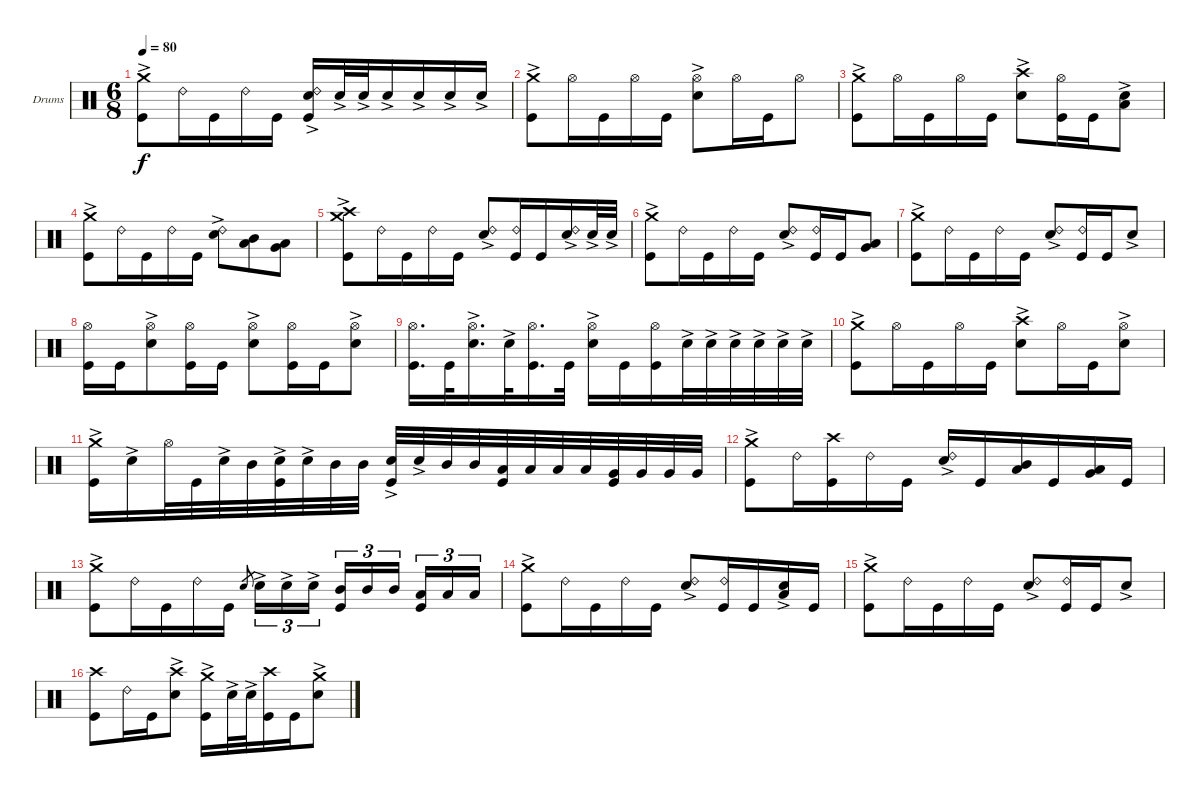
\defaultSystemsLayout 4
\bracketExtendMode groupsimilarinstruments
\firstSystemTrackNameOrientation horizontal
\otherSystemsTrackNameOrientation horizontal
\track ("Drumkit" "Drums") {instrument percussion}
\staff {score}
\articulation defaults
\ts (6 8)
\tempo 80
\clef neutral
\ks c
("Crash medium (hit)"{ac} "Kick (hit)").8{dy f} "Ride (bell) 2".16 "Kick (hit)".16 "Ride (bell) 2".16 "Kick (hit)".16 ("Ride (bell) 2" "Snare (hit) 2"{ac} "Kick (hit)").16 "Snare (hit) 2"{ac}.32 "Snare (hit) 2"{ac}.32 "Snare (hit) 2"{ac}.16 "Snare (hit) 2"{ac}.16 "Snare (hit) 2"{ac}.16 "Snare (hit) 2"{ac}.16 |
("Crash medium (hit)"{ac} "Kick (hit)").8 "Hi-Hat (open)".16 "Kick (hit)".16 "Hi-Hat (open)".16 "Kick (hit)".16 ("Hi-Hat (open)" "Snare (hit) 2"{ac}).8 "Hi-Hat (open)".16 "Kick (hit)".16 "Hi-Hat (open)".8 |
("Crash medium (hit)"{ac} "Kick (hit)").8 "Hi-Hat (open)".16 "Kick (hit)".16 "Hi-Hat (open)".16 "Kick (hit)".16 ("Crash high (hit)" "Snare (hit) 2"{ac}).8 ("Hi-Hat (open)" "Kick (hit)").16 "Kick (hit)".16 ("Snare (hit) 2"{ac} "Low Tom (hit)").8 |
("Crash medium (hit)"{ac} "Kick (hit)").8 "Ride (bell) 2".16 "Kick (hit)".16 "Ride (bell) 2".16 "Kick (hit)".16 ("Ride (bell) 2" "Snare (hit) 2"{ac}).8 ("Mid Tom (hit)" "Low Tom (hit)").8 ("Low Tom (hit)" "Very Low Tom (hit)").8 |
("Crash medium (hit)"{ac} "Crash high (hit)" "Kick (hit)").8 "Ride (bell) 2".16 "Kick (hit)".16 "Ride (bell) 2".16 "Kick (hit)".16 ("Ride (bell) 2" "Snare (hit) 2"{ac}).8 ("Ride (bell) 2" "Kick (hit)").16 "Kick (hit)".16 ("Ride (bell) 2" "Snare (hit) 2"{ac}).16 "Snare (hit) 2"{ac}.32 "Snare (hit) 2"{ac}.32 |
("Crash medium (hit)"{ac} "Kick (hit)").8 "Ride (bell) 2".16 "Kick (hit)".16 "Ride (bell) 2".16 "Kick (hit)".16 ("Ride (bell) 2" "Snare (hit) 2"{ac}).8 ("Ride (bell) 2" "Kick (hit)").16 "Kick (hit)".16 ("Low Tom (hit)" "Very Low Tom (hit)").8 |
("Crash medium (hit)"{ac} "Kick (hit)").8 "Ride (bell) 2".16 "Kick (hit)".16 "Ride (bell) 2".16 "Kick (hit)".16 ("Ride (bell) 2" "Snare (hit) 2"{ac}).8 ("Ride (bell) 2" "Kick (hit)").16 "Kick (hit)".16 "Snare (hit) 2"{ac}.8 |
("Hi-Hat (open)" "Kick (hit)").16 "Kick (hit)".16 ("Hi-Hat (open)" "Snare (hit) 2"{ac}).8 ("Hi-Hat (open)" "Kick (hit)").16 "Kick (hit)".16 ("Hi-Hat (open)" "Snare (hit) 2"{ac}).8 ("Hi-Hat (open)" "Kick (hit)").16 "Kick (hit)".16 ("Hi-Hat (open)" "Snare (hit) 2"{ac}).8 |
("Hi-Hat (open)" "Kick (hit)").16{d} "Kick (hit)".32 ("Hi-Hat (open)" "Snare (hit) 2"{ac}).16{d} "Snare (hit) 2"{ac}.32 ("Hi-Hat (open)" "Kick (hit)").16{d} "Kick (hit)".32 ("Hi-Hat (open)" "Snare (hit) 2"{ac}).16 "Kick (hit)".16 ("Hi-Hat (open)" "Kick (hit)").16 "Snare (hit) 2"{ac}.32 "Snare (hit) 2"{ac}.32 "Snare (hit) 2"{ac}.32 "Snare (hit) 2"{ac}.32 "Snare (hit) 2"{ac}.32 "Snare (hit) 2"{ac}.32 |
("Crash medium (hit)"{ac} "Kick (hit)").8 "Hi-Hat (open)".16 "Kick (hit)".16 "Hi-Hat (open)".16 "Kick (hit)".16 ("Crash high (hit)" "Snare (hit) 2"{ac}).8 "Hi-Hat (open)".16 "Kick (hit)".16 ("Hi-Hat (open)" "Snare (hit) 2"{ac}).8 |
("Crash medium (hit)"{ac} "Kick (hit)").16 "Snare (hit) 2"{ac}.16 "Hi-Hat (open)".32 "Kick (hit)".32 "Snare (hit) 2"{ac}.32 "Mid Tom (hit)".32 ("Snare (hit) 2"{ac} "Kick (hit)").32 "Snare (hit) 2"{ac}.32 "Mid Tom (hit)".32 "Mid Tom (hit)".32 ("Snare (hit) 2"{ac} "Kick (hit)").32 "Snare (hit) 2"{ac}.32 "Mid Tom (hit)".32 "Mid Tom (hit)".32 ("Low Tom (hit)" "Kick (hit)").32 "Low Tom (hit)".32 "Low Tom (hit)".32 "Low Tom (hit)".32 ("Very Low Tom (hit)" "Kick (hit)").32 "Very Low Tom (hit)".32 "Very Low Tom (hit)".32 "Very Low Tom (hit)".32 |
("Crash medium (hit)"{ac} "Kick (hit)").8 "Ride (bell) 2".16 ("Crash high (hit)" "Kick (hit)").16 "Ride (bell) 2".16 "Kick (hit)".16 ("Ride (bell) 2" "Snare (hit) 2"{ac}).16 "Kick (hit)".16 ("Mid Tom (hit)" "Low Tom (hit)").16 "Kick (hit)".16 ("Low Tom (hit)" "Very Low Tom (hit)").16 "Kick (hit)".16 |
("Crash medium (hit)"{ac} "Kick (hit)").8 "Ride (bell) 2".16 "Kick (hit)".16 "Ride (bell) 2".16 "Kick (hit)".16 "Snare (hit) 2".8{gr} "Snare (hit) 2"{ac}.16{tu (3 2)} "Snare (hit) 2"{ac}.16{tu (3 2)} "Snare (hit) 2"{ac}.16{tu (3 2)} ("Mid Tom (hit)" "Kick (hit)").16{tu (3 2)} "Mid Tom (hit)".16{tu (3 2)} "Mid Tom (hit)".16{tu (3 2)} ("Low Tom (hit)" "Kick (hit)").16{tu (3 2)} "Low Tom (hit)".16{tu (3 2)} "Low Tom (hit)".16{tu (3 2)} |
("Crash medium (hit)"{ac} "Kick (hit)").8 "Ride (bell) 2".16 "Kick (hit)".16 "Ride (bell) 2".16 "Kick (hit)".16 ("Ride (bell) 2" "Snare (hit) 2"{ac}).8 ("Ride (bell) 2" "Kick (hit)").16 "Kick (hit)".16 ("Snare (hit) 2"{ac} "Low Tom (hit)").16 "Kick (hit)".16 |
("Crash medium (hit)"{ac} "Kick (hit)").8 "Ride (bell) 2".16 "Kick (hit)".16 "Ride (bell) 2".16 "Kick (hit)".16 ("Ride (bell) 2" "Snare (hit) 2"{ac}).8 ("Ride (bell) 2" "Kick (hit)").16 "Kick (hit)".16 "Snare (hit) 2"{ac}.8 |
("Crash high (hit)" "Kick (hit)").8 "Ride (bell) 2".16 "Kick (hit)".16 ("Crash high (hit)" "Snare (hit) 2"{ac}).8 ("Crash medium (hit)"{ac} "Kick (hit)").16 "Snare (hit) 2"{ac}.32 "Snare (hit) 2"{ac}.32 ("Crash high (hit)" "Kick (hit)").16 "Kick (hit)".16 ("Crash medium (hit)"{ac} "Snare (hit) 2"{ac}).8
